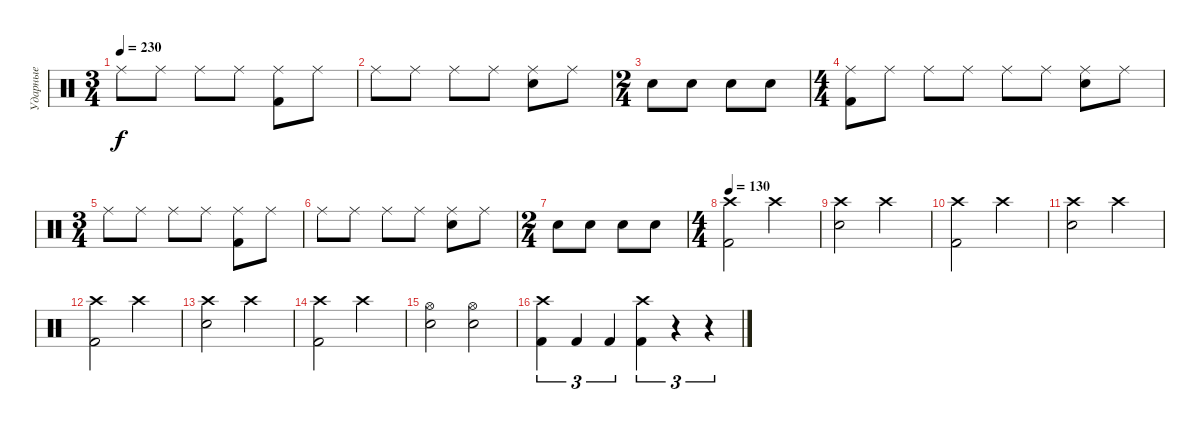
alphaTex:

\track ("Ударные" "Ударные") {instrument percussion}
\staff {score}
\articulation defaults
\ts (3 4)
\tempo 230
\clef neutral
\ks c "Ride (middle)".8{dy f} "Ride (middle)".8 "Ride (middle)".8 "Ride (middle)".8
("Ride (middle)" "Kick (hit) 2").8 "Ride (middle)".8 |
"Ride (middle)".8 "Ride (middle)".8 "Ride (middle)".8 "Ride (middle)".8 ("Ride (middle)" "Electric Snare (hit)").8 "Ride (middle)".8 |
\ts (2 4)
"Electric Snare (hit)".8 "Electric Snare (hit)".8 "Electric Snare (hit)".8 "Electric Snare (hit)".8 |
\ts (4 4)
("Ride (middle)" "Kick (hit) 2").8 "Ride (middle)".8 "Ride (middle)".8 "Ride (middle)".8 "Ride (middle)".8 "Ride (middle)".8 ("Ride (middle)" "Electric Snare (hit)").8 "Ride (middle)".8 |
\ts (3 4)
"Ride (middle)".8 "Ride (middle)".8 "Ride (middle)".8 "Ride (middle)".8 ("Ride (middle)" "Kick (hit) 2").8 "Ride (middle)".8 |
"Ride (middle)".8 "Ride (middle)".8 "Ride (middle)".8 "Ride (middle)".8 ("Ride (middle)" "Electric Snare (hit)").8 "Ride (middle)".8 |
\ts (2 4)
"Electric Snare (hit)".8 "Electric Snare (hit)".8 "Electric Snare (hit)".8 "Electric Snare (hit)".8 |
\ts (4 4)
\tempo 130
("Crash high (hit)" "Kick (hit) 2").2 "Crash high (hit)".2 |
("Crash high (hit)" "Electric Snare (hit)").2 "Crash high (hit)".2 |
("Crash high (hit)" "Kick (hit) 2").2 "Crash high (hit)".2 |
("Crash high (hit)" "Electric Snare (hit)").2 "Crash high (hit)".2 |
("Crash high (hit)" "Kick (hit) 2").2 "Crash high (hit)".2 |
("Crash high (hit)" "Electric Snare (hit)").2 "Crash high (hit)".2 |
("Crash high (hit)" "Kick (hit) 2").2 "Crash high (hit)".2 |
("Hi-Hat (open)" "Electric Snare (hit)").2 ("Hi-Hat (open)" "Electric Snare (hit)").2 |
("Crash high (hit)" "Kick (hit) 2").4{tu (3 2)} "Kick (hit) 2".4{tu (3 2)} "Kick (hit) 2".4{tu (3 2)} ("Crash high (hit)" "Kick (hit) 2").4{tu (3 2)} r.4{tu (3 2)} r.4{tu (3 2)}
